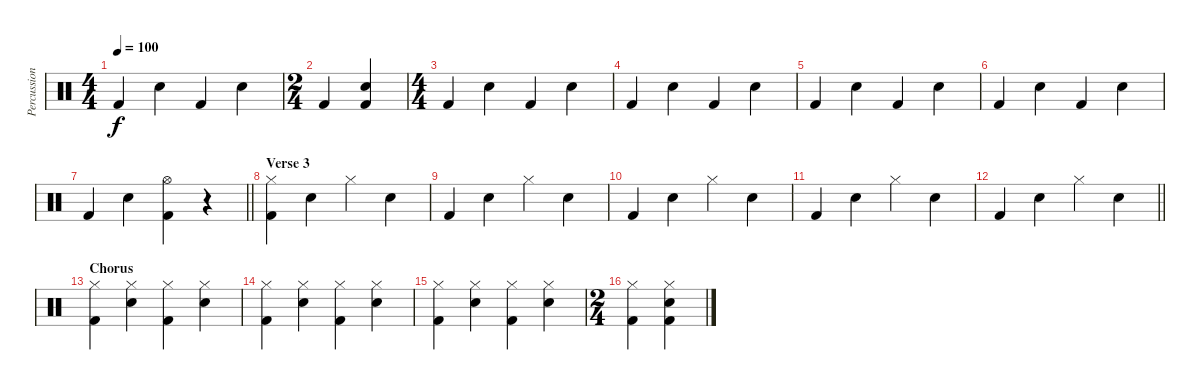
\track ("Percussion" "Percussion") {instrument percussion}
\staff {score}
\articulation defaults
\ts (4 4)
\tempo 100
\clef neutral
\ks c "Kick (hit) 2".4{dy f} "Snare (hit) 2".4 "Kick (hit) 2".4 "Snare (hit) 2".4
|
\ts (2 4)
"Kick (hit) 2".4 ("Snare (hit) 2" "Kick (hit) 2").4 |
\ts (4 4)
"Kick (hit) 2".4 "Snare (hit) 2".4 "Kick (hit) 2".4 "Snare (hit) 2".4 |
"Kick (hit) 2".4 "Snare (hit) 2".4 "Kick (hit) 2".4 "Snare (hit) 2".4 |
"Kick (hit) 2".4 "Snare (hit) 2".4 "Kick (hit) 2".4 "Snare (hit) 2".4 |
"Kick (hit) 2".4 "Snare (hit) 2".4 "Kick (hit) 2".4 "Snare (hit) 2".4 |
\barLineRight lightlight "Kick (hit) 2".4 "Snare (hit) 2".4
("Hi-Hat (open)" "Kick (hit) 2").4 r.4 |
\section ("" "Verse 3")
("Hi-Hat (closed)" "Kick (hit) 2").4 "Snare (hit) 2".4 "Hi-Hat (closed)".4 "Snare (hit) 2".4 |
"Kick (hit) 2".4 "Snare (hit) 2".4 "Hi-Hat (closed)".4 "Snare (hit) 2".4 |
"Kick (hit) 2".4 "Snare (hit) 2".4 "Hi-Hat (closed)".4 "Snare (hit) 2".4 |
"Kick (hit) 2".4 "Snare (hit) 2".4 "Hi-Hat (closed)".4 "Snare (hit) 2".4 |
\barLineRight lightlight "Kick (hit) 2".4 "Snare (hit) 2".4 "Hi-Hat (closed)".4 "Snare (hit) 2".4
|
\section ("" "Chorus")
("Hi-Hat (closed)" "Kick (hit) 2").4 ("Hi-Hat (closed)" "Snare (hit) 2").4 ("Hi-Hat (closed)" "Kick (hit) 2").4 ("Hi-Hat (closed)" "Snare (hit) 2").4 |
("Hi-Hat (closed)" "Kick (hit) 2").4 ("Hi-Hat (closed)" "Snare (hit) 2").4 ("Hi-Hat (closed)" "Kick (hit) 2").4 ("Hi-Hat (closed)" "Snare (hit) 2").4 |
("Hi-Hat (closed)" "Kick (hit) 2").4 ("Hi-Hat (closed)" "Snare (hit) 2").4 ("Hi-Hat (closed)" "Kick (hit) 2").4 ("Hi-Hat (closed)" "Snare (hit) 2").4 |
\ts (2 4)
("Hi-Hat (closed)" "Kick (hit) 2").4 ("Hi-Hat (closed)" "Snare (hit) 2" "Kick (hit) 2").4
